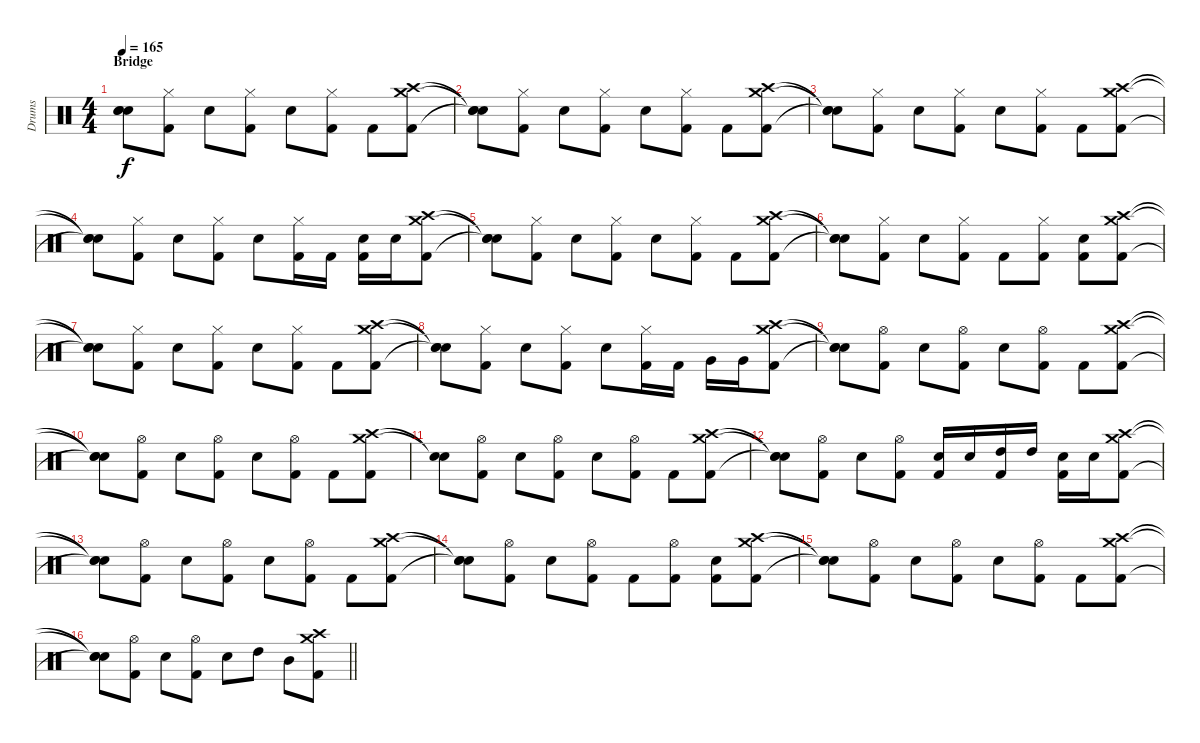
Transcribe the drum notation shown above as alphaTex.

\track ("Drums" "Drums") {instrument percussion}
\staff {score}
\articulation defaults
\ts (4 4)
\section ("" "Bridge")
\tempo 165
\clef neutral
\ks c
("Snare (hit)"{t} "Snare (hit)"{t} "Snare (hit)"{t}).8{dy f} ("Hi-Hat (closed)" "Kick (hit) 2").8 "Electric Snare (hit)".8 ("Hi-Hat (closed)" "Kick (hit) 2").8 "Electric Snare (hit)".8 ("Hi-Hat (closed)" "Kick (hit) 2").8 "Kick (hit) 2".8 ("Crash medium (hit)" "Crash high (hit)" "Kick (hit) 2").8 |
("Snare (hit)"{t} "Snare (hit)"{t} "Snare (hit)"{t}).8 ("Hi-Hat (closed)" "Kick (hit) 2").8 "Electric Snare (hit)".8 ("Hi-Hat (closed)" "Kick (hit) 2").8 "Electric Snare (hit)".8 ("Hi-Hat (closed)" "Kick (hit) 2").8 "Kick (hit) 2".8 ("Crash medium (hit)" "Crash high (hit)" "Kick (hit) 2").8 |
("Snare (hit)"{t} "Snare (hit)"{t} "Snare (hit)"{t}).8 ("Hi-Hat (closed)" "Kick (hit) 2").8 "Electric Snare (hit)".8 ("Hi-Hat (closed)" "Kick (hit) 2").8 "Electric Snare (hit)".8 ("Hi-Hat (closed)" "Kick (hit) 2").8 "Kick (hit) 2".8 ("Crash medium (hit)" "Crash high (hit)" "Kick (hit) 2").8 |
("Snare (hit)"{t} "Snare (hit)"{t} "Snare (hit)"{t}).8 ("Hi-Hat (closed)" "Kick (hit) 2").8 "Electric Snare (hit)".8 ("Hi-Hat (closed)" "Kick (hit) 2").8 "Electric Snare (hit)".8 ("Hi-Hat (closed)" "Kick (hit) 2").16 "Kick (hit) 2".16 ("Electric Snare (hit)" "Kick (hit) 2").16 "Electric Snare (hit)".16 ("Crash medium (hit)" "Crash high (hit)" "Kick (hit) 2").8 |
("Snare (hit)"{t} "Snare (hit)"{t} "Snare (hit)"{t}).8 ("Hi-Hat (closed)" "Kick (hit) 2").8 "Electric Snare (hit)".8 ("Hi-Hat (closed)" "Kick (hit) 2").8 "Electric Snare (hit)".8 ("Hi-Hat (closed)" "Kick (hit) 2").8 "Kick (hit) 2".8 ("Crash medium (hit)" "Crash high (hit)" "Kick (hit) 2").8 |
("Snare (hit)"{t} "Snare (hit)"{t} "Snare (hit)"{t}).8 ("Hi-Hat (closed)" "Kick (hit) 2").8 "Electric Snare (hit)".8 ("Hi-Hat (closed)" "Kick (hit) 2").8 "Kick (hit) 2".8 ("Hi-Hat (closed)" "Kick (hit) 2").8 ("Electric Snare (hit)" "Kick (hit) 2").8 ("Crash medium (hit)" "Crash high (hit)" "Kick (hit) 2").8 |
("Snare (hit)"{t} "Snare (hit)"{t} "Snare (hit)"{t}).8 ("Hi-Hat (closed)" "Kick (hit) 2").8 "Electric Snare (hit)".8 ("Hi-Hat (closed)" "Kick (hit) 2").8 "Electric Snare (hit)".8 ("Hi-Hat (closed)" "Kick (hit) 2").8 "Kick (hit) 2".8 ("Crash medium (hit)" "Crash high (hit)" "Kick (hit) 2").8 |
("Snare (hit)"{t} "Snare (hit)"{t} "Snare (hit)"{t}).8 ("Hi-Hat (closed)" "Kick (hit) 2").8 "Electric Snare (hit)".8 ("Hi-Hat (closed)" "Kick (hit) 2").8 "Electric Snare (hit)".8 ("Hi-Hat (closed)" "Kick (hit) 2").16 "Kick (hit) 2".16 "Very Low Tom (hit)".16 "Very Low Tom (hit)".16 ("Crash medium (hit)" "Crash high (hit)" "Kick (hit) 2").8 |
("Snare (hit)"{t} "Snare (hit)"{t} "Snare (hit)"{t}).8 ("Hi-Hat (open)" "Kick (hit) 2").8 "Electric Snare (hit)".8 ("Hi-Hat (open)" "Kick (hit) 2").8 "Electric Snare (hit)".8 ("Hi-Hat (open)" "Kick (hit) 2").8 "Kick (hit) 2".8 ("Crash medium (hit)" "Crash high (hit)" "Kick (hit) 2").8 |
("Snare (hit)"{t} "Snare (hit)"{t} "Snare (hit)"{t}).8 ("Hi-Hat (open)" "Kick (hit) 2").8 "Electric Snare (hit)".8 ("Hi-Hat (open)" "Kick (hit) 2").8 "Electric Snare (hit)".8 ("Hi-Hat (open)" "Kick (hit) 2").8 "Kick (hit) 2".8 ("Crash medium (hit)" "Crash high (hit)" "Kick (hit) 2").8 |
("Snare (hit)"{t} "Snare (hit)"{t}).8 ("Hi-Hat (open)" "Kick (hit) 2").8 "Electric Snare (hit)".8 ("Hi-Hat (open)" "Kick (hit) 2").8 "Electric Snare (hit)".8 ("Hi-Hat (open)" "Kick (hit) 2").8 "Kick (hit) 2".8 ("Crash medium (hit)" "Crash high (hit)" "Kick (hit) 2").8 |
("Snare (hit)"{t} "Snare (hit)"{t} "Snare (hit)"{t}).8 ("Hi-Hat (open)" "Kick (hit) 2").8 "Electric Snare (hit)".8 ("Hi-Hat (open)" "Kick (hit) 2").8 ("Electric Snare (hit)" "Kick (hit) 2").16 "Electric Snare (hit)".16 ("High Tom (hit)" "Kick (hit) 2").16 "High Tom (hit)".16 ("Electric Snare (hit)" "Kick (hit) 2").16 "Electric Snare (hit)".16 ("Crash medium (hit)" "Crash high (hit)" "Kick (hit) 2").8 |
("Snare (hit)"{t} "Snare (hit)"{t} "Snare (hit)"{t}).8 ("Hi-Hat (open)" "Kick (hit) 2").8 "Electric Snare (hit)".8 ("Hi-Hat (open)" "Kick (hit) 2").8 "Electric Snare (hit)".8 ("Hi-Hat (open)" "Kick (hit) 2").8 "Kick (hit) 2".8 ("Crash medium (hit)" "Crash high (hit)" "Kick (hit) 2").8 |
("Snare (hit)"{t} "Snare (hit)"{t} "Snare (hit)"{t}).8 ("Hi-Hat (open)" "Kick (hit) 2").8 "Electric Snare (hit)".8 ("Hi-Hat (open)" "Kick (hit) 2").8 "Kick (hit) 2".8 ("Hi-Hat (open)" "Kick (hit) 2").8 ("Electric Snare (hit)" "Kick (hit) 2").8 ("Crash medium (hit)" "Crash high (hit)" "Kick (hit) 2").8 |
("Snare (hit)"{t} "Snare (hit)"{t} "Snare (hit)"{t}).8 ("Hi-Hat (open)" "Kick (hit) 2").8 "Electric Snare (hit)".8 ("Hi-Hat (open)" "Kick (hit) 2").8 "Electric Snare (hit)".8 ("Hi-Hat (open)" "Kick (hit) 2").8 "Kick (hit) 2".8 ("Crash medium (hit)" "Crash high (hit)" "Kick (hit) 2").8 |
\barLineRight lightlight
("Snare (hit)"{t} "Snare (hit)"{t} "Snare (hit)"{t}).8 ("Hi-Hat (open)" "Kick (hit) 2").8 "Electric Snare (hit)".8 ("Hi-Hat (open)" "Kick (hit) 2").8 "Electric Snare (hit)".8 "High Tom (hit)".8 "Mid Tom (hit)".8 ("Crash medium (hit)" "Crash high (hit)" "Kick (hit) 2").8
